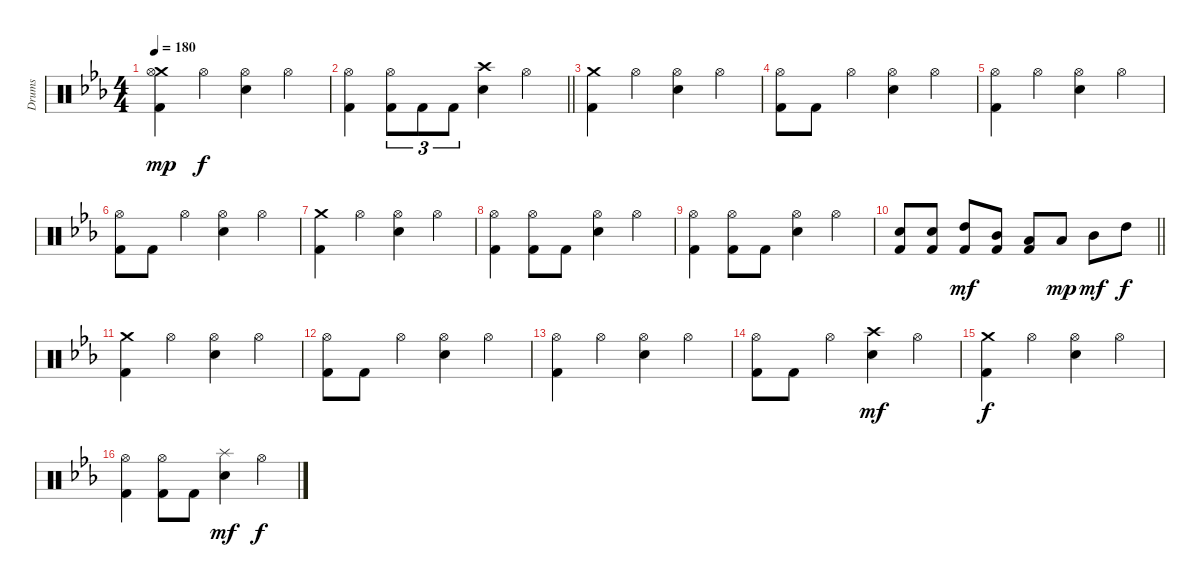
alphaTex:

\track ("Drums" "Drums") {instrument percussion}
\staff {score}
\articulation defaults
\ts (4 4)
\tempo 180
\clef neutral
\ks eb
("Crash medium (hit)" "Hi-Hat (open)" "Kick (hit) 2").4{dy mp} "Hi-Hat (open)".4{dy f} ("Hi-Hat (open)" "Snare (hit) 2").4 "Hi-Hat (open)".4 |
\barLineRight lightlight
("Hi-Hat (open)" "Kick (hit) 2").4 ("Hi-Hat (open)" "Kick (hit) 2").8{tu (3 2)} "Kick (hit) 2".8{tu (3 2)} "Kick (hit) 2".8{tu (3 2)} ("Crash high (hit)" "Snare (hit) 2").4 "Hi-Hat (open)".4 |
\section ("" "")
("Crash medium (hit)" "Kick (hit) 2").4 "Hi-Hat (open)".4 ("Hi-Hat (open)" "Snare (hit) 2").4 "Hi-Hat (open)".4 |
("Hi-Hat (open)" "Kick (hit) 2").8 "Kick (hit) 2".8 "Hi-Hat (open)".4 ("Hi-Hat (open)" "Snare (hit) 2").4 "Hi-Hat (open)".4 |
("Hi-Hat (open)" "Kick (hit) 2").4 "Hi-Hat (open)".4 ("Hi-Hat (open)" "Snare (hit) 2").4 "Hi-Hat (open)".4 |
("Hi-Hat (open)" "Kick (hit) 2").8 "Kick (hit) 2".8 "Hi-Hat (open)".4 ("Hi-Hat (open)" "Snare (hit) 2").4 "Hi-Hat (open)".4 |
("Crash medium (hit)" "Kick (hit) 2").4 "Hi-Hat (open)".4 ("Hi-Hat (open)" "Snare (hit) 2").4 "Hi-Hat (open)".4 |
("Hi-Hat (open)" "Kick (hit) 2").4 ("Hi-Hat (open)" "Kick (hit) 2").8 "Kick (hit) 2".8 ("Hi-Hat (open)" "Snare (hit) 2").4 "Hi-Hat (open)".4 |
("Hi-Hat (open)" "Kick (hit) 2").4 ("Hi-Hat (open)" "Kick (hit) 2").8 "Kick (hit) 2".8 ("Hi-Hat (open)" "Snare (hit) 2").4 "Hi-Hat (open)".4 |
\barLineRight lightlight
("Snare (hit) 2" "Kick (hit) 2").8 ("Snare (hit) 2" "Kick (hit) 2").8 ("High Tom (hit)" "Kick (hit) 2").8{dy mf} ("Mid Tom (hit)" "Kick (hit) 2").8 ("Low Tom (hit)" "Kick (hit) 2").8 "Low Tom (hit)".8{dy mp} "Mid Tom (hit)".8{dy mf} "High Tom (hit)".8{dy f} |
\section ("" "")
("Crash medium (hit)" "Kick (hit) 2").4 "Hi-Hat (open)".4 ("Hi-Hat (open)" "Snare (hit) 2").4 "Hi-Hat (open)".4 |
("Hi-Hat (open)" "Kick (hit) 2").8 "Kick (hit) 2".8 "Hi-Hat (open)".4 ("Hi-Hat (open)" "Snare (hit) 2").4 "Hi-Hat (open)".4 |
("Hi-Hat (open)" "Kick (hit) 2").4 "Hi-Hat (open)".4 ("Hi-Hat (open)" "Snare (hit) 2").4 "Hi-Hat (open)".4 |
("Hi-Hat (open)" "Kick (hit) 2").8 "Kick (hit) 2".8 "Hi-Hat (open)".4 ("Crash high (hit)" "Snare (hit) 2").4{dy mf} "Hi-Hat (open)".4 |
("Crash medium (hit)" "Kick (hit) 2").4{dy f} "Hi-Hat (open)".4 ("Hi-Hat (open)" "Snare (hit) 2").4 "Hi-Hat (open)".4 |
("Hi-Hat (open)" "Kick (hit) 2").4 ("Hi-Hat (open)" "Kick (hit) 2").8 "Kick (hit) 2".8 ("Splash (hit)" "Snare (hit) 2").4{dy mf} "Hi-Hat (open)".4{dy f}
